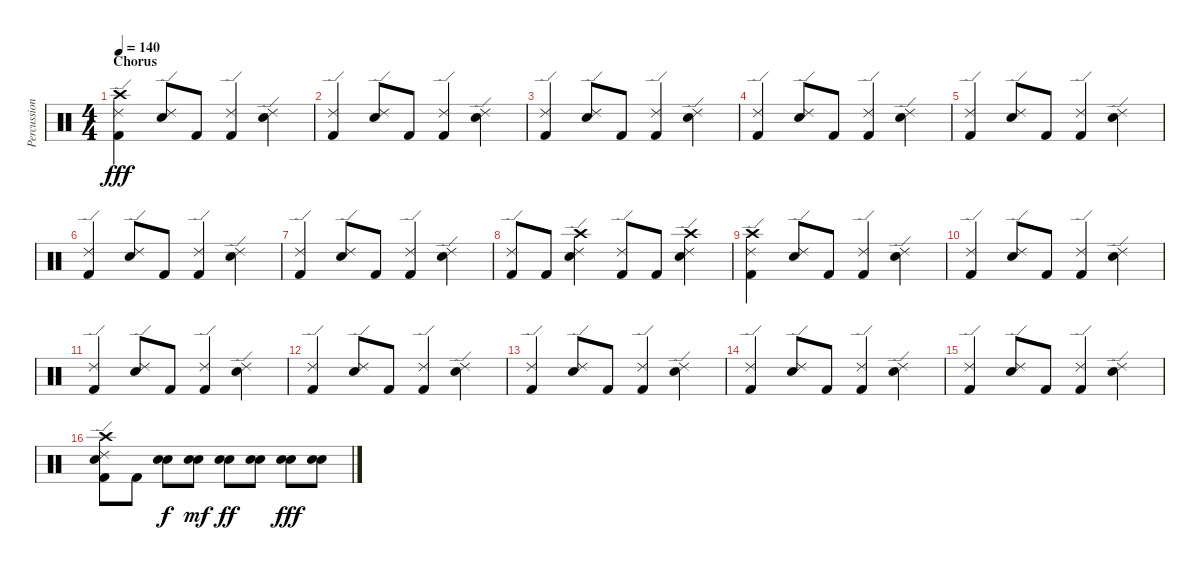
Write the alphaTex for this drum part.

\track ("Percussion" "Percussion") {instrument percussion}
\staff {score}
\articulation defaults
\ts (4 4)
\section ("" "Chorus")
\tempo 140
\clef neutral
\ks c
("Crash high (hit)" "Ride (edge) 2" "Kick (hit) 2").4{dy fff} ("Ride (edge) 2" "Electric Snare (hit)").8 "Kick (hit) 2".8 ("Ride (edge) 2" "Kick (hit) 2").4 ("Ride (edge) 2" "Electric Snare (hit)").4 |
("Ride (edge) 2" "Kick (hit) 2").4 ("Ride (edge) 2" "Electric Snare (hit)").8 "Kick (hit) 2".8 ("Ride (edge) 2" "Kick (hit) 2").4 ("Ride (edge) 2" "Electric Snare (hit)").4 |
("Ride (edge) 2" "Kick (hit) 2").4 ("Ride (edge) 2" "Electric Snare (hit)").8 "Kick (hit) 2".8 ("Ride (edge) 2" "Kick (hit) 2").4 ("Ride (edge) 2" "Electric Snare (hit)").4 |
("Ride (edge) 2" "Kick (hit) 2").4 ("Ride (edge) 2" "Electric Snare (hit)").8 "Kick (hit) 2".8 ("Ride (edge) 2" "Kick (hit) 2").4 ("Ride (edge) 2" "Electric Snare (hit)").4 |
("Ride (edge) 2" "Kick (hit) 2").4 ("Ride (edge) 2" "Electric Snare (hit)").8 "Kick (hit) 2".8 ("Ride (edge) 2" "Kick (hit) 2").4 ("Ride (edge) 2" "Electric Snare (hit)").4 |
("Ride (edge) 2" "Kick (hit) 2").4 ("Ride (edge) 2" "Electric Snare (hit)").8 "Kick (hit) 2".8 ("Ride (edge) 2" "Kick (hit) 2").4 ("Ride (edge) 2" "Electric Snare (hit)").4 |
("Ride (edge) 2" "Kick (hit) 2").4 ("Ride (edge) 2" "Electric Snare (hit)").8 "Kick (hit) 2".8 ("Ride (edge) 2" "Kick (hit) 2").4 ("Ride (edge) 2" "Electric Snare (hit)").4 |
("Ride (edge) 2" "Kick (hit) 2").8 "Kick (hit) 2".8 ("Crash high (hit)" "Ride (edge) 2" "Electric Snare (hit)").4 ("Ride (edge) 2" "Kick (hit) 2").8 "Kick (hit) 2".8 ("Crash high (hit)" "Ride (edge) 2" "Electric Snare (hit)").4 |
("Crash high (hit)" "Ride (edge) 2" "Kick (hit) 2").4 ("Ride (edge) 2" "Electric Snare (hit)").8 "Kick (hit) 2".8 ("Ride (edge) 2" "Kick (hit) 2").4 ("Ride (edge) 2" "Electric Snare (hit)").4 |
("Ride (edge) 2" "Kick (hit) 2").4 ("Ride (edge) 2" "Electric Snare (hit)").8 "Kick (hit) 2".8 ("Ride (edge) 2" "Kick (hit) 2").4 ("Ride (edge) 2" "Electric Snare (hit)").4 |
("Ride (edge) 2" "Kick (hit) 2").4 ("Ride (edge) 2" "Electric Snare (hit)").8 "Kick (hit) 2".8 ("Ride (edge) 2" "Kick (hit) 2").4 ("Ride (edge) 2" "Electric Snare (hit)").4 |
("Ride (edge) 2" "Kick (hit) 2").4 ("Ride (edge) 2" "Electric Snare (hit)").8 "Kick (hit) 2".8 ("Ride (edge) 2" "Kick (hit) 2").4 ("Ride (edge) 2" "Electric Snare (hit)").4 |
("Ride (edge) 2" "Kick (hit) 2").4 ("Ride (edge) 2" "Electric Snare (hit)").8 "Kick (hit) 2".8 ("Ride (edge) 2" "Kick (hit) 2").4 ("Ride (edge) 2" "Electric Snare (hit)").4 |
("Ride (edge) 2" "Kick (hit) 2").4 ("Ride (edge) 2" "Electric Snare (hit)").8 "Kick (hit) 2".8 ("Ride (edge) 2" "Kick (hit) 2").4 ("Ride (edge) 2" "Electric Snare (hit)").4 |
("Ride (edge) 2" "Kick (hit) 2").4 ("Ride (edge) 2" "Electric Snare (hit)").8 "Kick (hit) 2".8 ("Ride (edge) 2" "Kick (hit) 2").4 ("Ride (edge) 2" "Electric Snare (hit)").4 |
("Crash high (hit)" "Ride (edge) 2" "Electric Snare (hit)" "Kick (hit) 2").8 "Kick (hit) 2".8 ("Electric Snare (hit)" "Electric Snare (hit)").8{dy f} ("Electric Snare (hit)" "Electric Snare (hit)").8{dy mf} ("Electric Snare (hit)" "Electric Snare (hit)").8{dy ff} ("Electric Snare (hit)" "Electric Snare (hit)").8 ("Electric Snare (hit)" "Electric Snare (hit)").8{dy fff} ("Electric Snare (hit)" "Electric Snare (hit)").8
